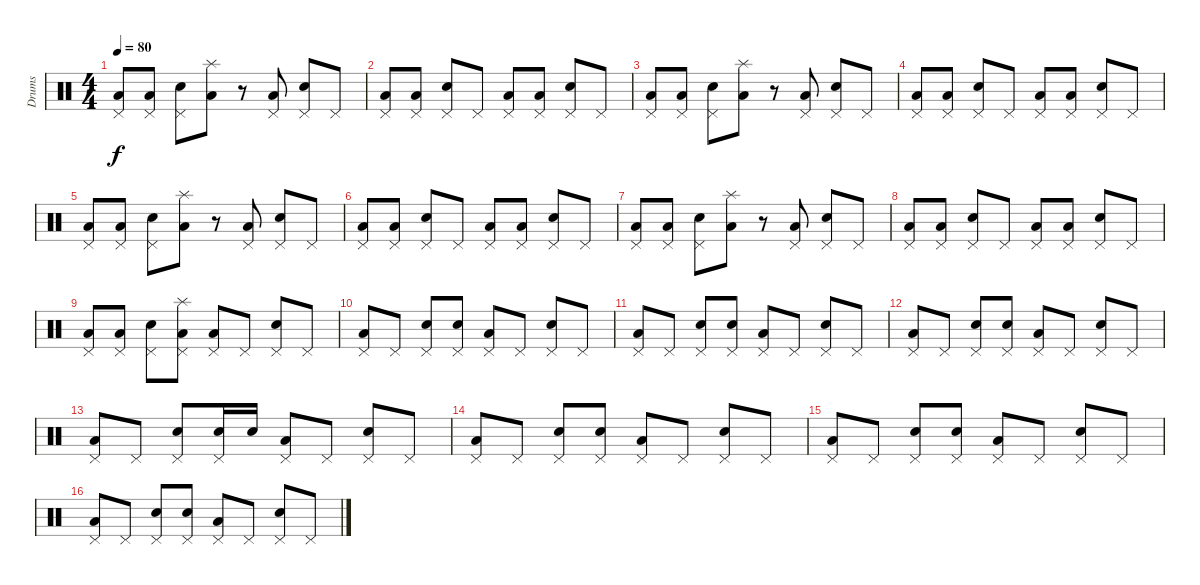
\track ("Drums" "Drums") {instrument percussion}
\staff {score}
\articulation defaults
\ts (4 4)
\tempo 80
\clef neutral
\ks c
("Low Floor Tom (hit)" "Pedal Hi-Hat (hit)").8{dy f} ("Low Floor Tom (hit)" "Pedal Hi-Hat (hit)").8 ("Electric Snare (hit)" "Pedal Hi-Hat (hit)").8 ("Low Floor Tom (hit)" "Splash (hit)").8 r.8 ("Low Floor Tom (hit)" "Pedal Hi-Hat (hit)").8 ("Electric Snare (hit)" "Pedal Hi-Hat (hit)").8 "Pedal Hi-Hat (hit)".8 |
("Low Floor Tom (hit)" "Pedal Hi-Hat (hit)").8 ("Low Floor Tom (hit)" "Pedal Hi-Hat (hit)").8 ("Electric Snare (hit)" "Pedal Hi-Hat (hit)").8 "Pedal Hi-Hat (hit)".8 ("Low Floor Tom (hit)" "Pedal Hi-Hat (hit)").8 ("Low Floor Tom (hit)" "Pedal Hi-Hat (hit)").8 ("Electric Snare (hit)" "Pedal Hi-Hat (hit)").8 "Pedal Hi-Hat (hit)".8 |
("Low Floor Tom (hit)" "Pedal Hi-Hat (hit)").8 ("Low Floor Tom (hit)" "Pedal Hi-Hat (hit)").8 ("Electric Snare (hit)" "Pedal Hi-Hat (hit)").8 ("Low Floor Tom (hit)" "Splash (hit)").8 r.8 ("Low Floor Tom (hit)" "Pedal Hi-Hat (hit)").8 ("Electric Snare (hit)" "Pedal Hi-Hat (hit)").8 "Pedal Hi-Hat (hit)".8 |
("Low Floor Tom (hit)" "Pedal Hi-Hat (hit)").8 ("Low Floor Tom (hit)" "Pedal Hi-Hat (hit)").8 ("Electric Snare (hit)" "Pedal Hi-Hat (hit)").8 "Pedal Hi-Hat (hit)".8 ("Low Floor Tom (hit)" "Pedal Hi-Hat (hit)").8 ("Low Floor Tom (hit)" "Pedal Hi-Hat (hit)").8 ("Electric Snare (hit)" "Pedal Hi-Hat (hit)").8 "Pedal Hi-Hat (hit)".8 |
("Low Floor Tom (hit)" "Pedal Hi-Hat (hit)").8 ("Low Floor Tom (hit)" "Pedal Hi-Hat (hit)").8 ("Electric Snare (hit)" "Pedal Hi-Hat (hit)").8 ("Low Floor Tom (hit)" "Splash (hit)").8 r.8 ("Low Floor Tom (hit)" "Pedal Hi-Hat (hit)").8 ("Electric Snare (hit)" "Pedal Hi-Hat (hit)").8 "Pedal Hi-Hat (hit)".8 |
("Low Floor Tom (hit)" "Pedal Hi-Hat (hit)").8 ("Low Floor Tom (hit)" "Pedal Hi-Hat (hit)").8 ("Electric Snare (hit)" "Pedal Hi-Hat (hit)").8 "Pedal Hi-Hat (hit)".8 ("Low Floor Tom (hit)" "Pedal Hi-Hat (hit)").8 ("Low Floor Tom (hit)" "Pedal Hi-Hat (hit)").8 ("Electric Snare (hit)" "Pedal Hi-Hat (hit)").8 "Pedal Hi-Hat (hit)".8 |
("Low Floor Tom (hit)" "Pedal Hi-Hat (hit)").8 ("Low Floor Tom (hit)" "Pedal Hi-Hat (hit)").8 ("Electric Snare (hit)" "Pedal Hi-Hat (hit)").8 ("Low Floor Tom (hit)" "Splash (hit)").8 r.8 ("Low Floor Tom (hit)" "Pedal Hi-Hat (hit)").8 ("Electric Snare (hit)" "Pedal Hi-Hat (hit)").8 "Pedal Hi-Hat (hit)".8 |
("Low Floor Tom (hit)" "Pedal Hi-Hat (hit)").8 ("Low Floor Tom (hit)" "Pedal Hi-Hat (hit)").8 ("Electric Snare (hit)" "Pedal Hi-Hat (hit)").8 "Pedal Hi-Hat (hit)".8 ("Low Floor Tom (hit)" "Pedal Hi-Hat (hit)").8 ("Low Floor Tom (hit)" "Pedal Hi-Hat (hit)").8 ("Electric Snare (hit)" "Pedal Hi-Hat (hit)").8 "Pedal Hi-Hat (hit)".8 |
("Low Floor Tom (hit)" "Pedal Hi-Hat (hit)").8 ("Low Floor Tom (hit)" "Pedal Hi-Hat (hit)").8 ("Electric Snare (hit)" "Pedal Hi-Hat (hit)").8 ("Low Floor Tom (hit)" "Pedal Hi-Hat (hit)" "Splash (hit)").8 ("Low Floor Tom (hit)" "Pedal Hi-Hat (hit)").8 "Pedal Hi-Hat (hit)".8 ("Electric Snare (hit)" "Pedal Hi-Hat (hit)").8 "Pedal Hi-Hat (hit)".8 |
("Low Floor Tom (hit)" "Pedal Hi-Hat (hit)").8 "Pedal Hi-Hat (hit)".8 ("Electric Snare (hit)" "Pedal Hi-Hat (hit)").8 ("Electric Snare (hit)" "Pedal Hi-Hat (hit)").8 ("Low Floor Tom (hit)" "Pedal Hi-Hat (hit)").8 "Pedal Hi-Hat (hit)".8 ("Electric Snare (hit)" "Pedal Hi-Hat (hit)").8 "Pedal Hi-Hat (hit)".8 |
("Low Floor Tom (hit)" "Pedal Hi-Hat (hit)").8 "Pedal Hi-Hat (hit)".8 ("Electric Snare (hit)" "Pedal Hi-Hat (hit)").8 ("Electric Snare (hit)" "Pedal Hi-Hat (hit)").8 ("Low Floor Tom (hit)" "Pedal Hi-Hat (hit)").8 "Pedal Hi-Hat (hit)".8 ("Electric Snare (hit)" "Pedal Hi-Hat (hit)").8 "Pedal Hi-Hat (hit)".8 |
("Low Floor Tom (hit)" "Pedal Hi-Hat (hit)").8 "Pedal Hi-Hat (hit)".8 ("Electric Snare (hit)" "Pedal Hi-Hat (hit)").8 ("Electric Snare (hit)" "Pedal Hi-Hat (hit)").8 ("Low Floor Tom (hit)" "Pedal Hi-Hat (hit)").8 "Pedal Hi-Hat (hit)".8 ("Electric Snare (hit)" "Pedal Hi-Hat (hit)").8 "Pedal Hi-Hat (hit)".8 |
("Low Floor Tom (hit)" "Pedal Hi-Hat (hit)").8 "Pedal Hi-Hat (hit)".8 ("Electric Snare (hit)" "Pedal Hi-Hat (hit)").8 ("Electric Snare (hit)" "Pedal Hi-Hat (hit)").16 "Electric Snare (hit)".16 ("Low Floor Tom (hit)" "Pedal Hi-Hat (hit)").8 "Pedal Hi-Hat (hit)".8 ("Electric Snare (hit)" "Pedal Hi-Hat (hit)").8 "Pedal Hi-Hat (hit)".8 |
("Low Floor Tom (hit)" "Pedal Hi-Hat (hit)").8 "Pedal Hi-Hat (hit)".8 ("Electric Snare (hit)" "Pedal Hi-Hat (hit)").8 ("Electric Snare (hit)" "Pedal Hi-Hat (hit)").8 ("Low Floor Tom (hit)" "Pedal Hi-Hat (hit)").8 "Pedal Hi-Hat (hit)".8 ("Electric Snare (hit)" "Pedal Hi-Hat (hit)").8 "Pedal Hi-Hat (hit)".8 |
("Low Floor Tom (hit)" "Pedal Hi-Hat (hit)").8 "Pedal Hi-Hat (hit)".8 ("Electric Snare (hit)" "Pedal Hi-Hat (hit)").8 ("Electric Snare (hit)" "Pedal Hi-Hat (hit)").8 ("Low Floor Tom (hit)" "Pedal Hi-Hat (hit)").8 "Pedal Hi-Hat (hit)".8 ("Electric Snare (hit)" "Pedal Hi-Hat (hit)").8 "Pedal Hi-Hat (hit)".8 |
("Low Floor Tom (hit)" "Pedal Hi-Hat (hit)").8 "Pedal Hi-Hat (hit)".8 ("Electric Snare (hit)" "Pedal Hi-Hat (hit)").8 ("Electric Snare (hit)" "Pedal Hi-Hat (hit)").8 ("Low Floor Tom (hit)" "Pedal Hi-Hat (hit)").8 "Pedal Hi-Hat (hit)".8 ("Electric Snare (hit)" "Pedal Hi-Hat (hit)").8 "Pedal Hi-Hat (hit)".8
